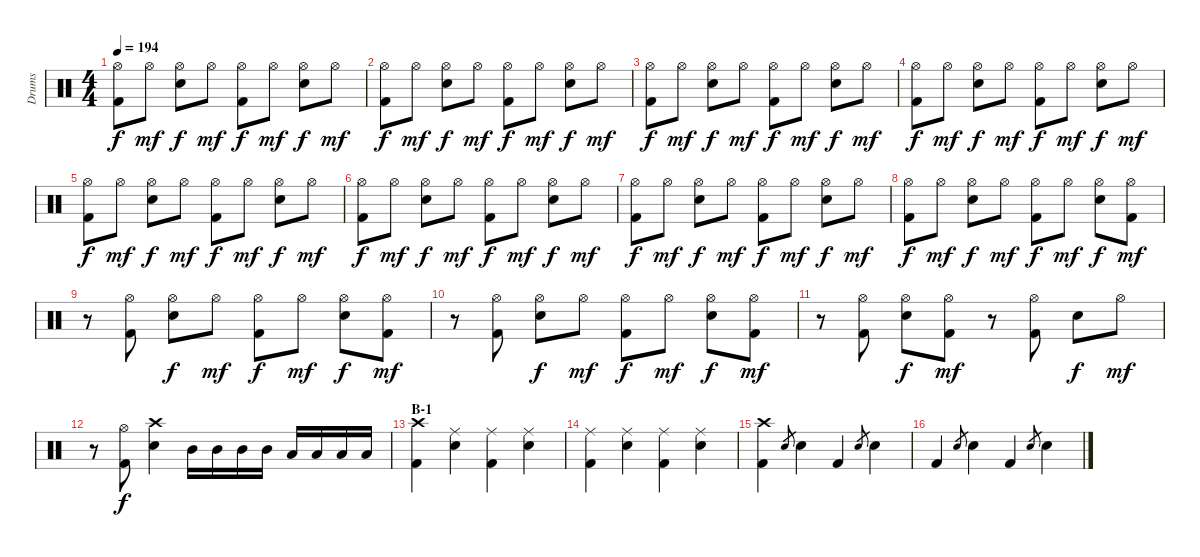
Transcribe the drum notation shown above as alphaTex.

\track ("Drums" "Drums") {instrument percussion}
\staff {score}
\articulation defaults
\ts (4 4)
\tempo 194
\clef neutral
\ks c
("Hi-Hat (open)" "Kick (hit) 2").8{dy f} "Hi-Hat (open)".8{dy mf} ("Hi-Hat (open)" "Electric Snare (hit)").8{dy f} "Hi-Hat (open)".8{dy mf} ("Hi-Hat (open)" "Kick (hit) 2").8{dy f} "Hi-Hat (open)".8{dy mf} ("Hi-Hat (open)" "Electric Snare (hit)").8{dy f} "Hi-Hat (open)".8{dy mf} |
("Hi-Hat (open)" "Kick (hit) 2").8{dy f} "Hi-Hat (open)".8{dy mf} ("Hi-Hat (open)" "Electric Snare (hit)").8{dy f} "Hi-Hat (open)".8{dy mf} ("Hi-Hat (open)" "Kick (hit) 2").8{dy f} "Hi-Hat (open)".8{dy mf} ("Hi-Hat (open)" "Electric Snare (hit)").8{dy f} "Hi-Hat (open)".8{dy mf} |
("Hi-Hat (open)" "Kick (hit) 2").8{dy f} "Hi-Hat (open)".8{dy mf} ("Hi-Hat (open)" "Electric Snare (hit)").8{dy f} "Hi-Hat (open)".8{dy mf} ("Hi-Hat (open)" "Kick (hit) 2").8{dy f} "Hi-Hat (open)".8{dy mf} ("Hi-Hat (open)" "Electric Snare (hit)").8{dy f} "Hi-Hat (open)".8{dy mf} |
("Hi-Hat (open)" "Kick (hit) 2").8{dy f} "Hi-Hat (open)".8{dy mf} ("Hi-Hat (open)" "Electric Snare (hit)").8{dy f} "Hi-Hat (open)".8{dy mf} ("Hi-Hat (open)" "Kick (hit) 2").8{dy f} "Hi-Hat (open)".8{dy mf} ("Hi-Hat (open)" "Electric Snare (hit)").8{dy f} "Hi-Hat (open)".8{dy mf} |
("Hi-Hat (open)" "Kick (hit) 2").8{dy f} "Hi-Hat (open)".8{dy mf} ("Hi-Hat (open)" "Electric Snare (hit)").8{dy f} "Hi-Hat (open)".8{dy mf} ("Hi-Hat (open)" "Kick (hit) 2").8{dy f} "Hi-Hat (open)".8{dy mf} ("Hi-Hat (open)" "Electric Snare (hit)").8{dy f} "Hi-Hat (open)".8{dy mf} |
("Hi-Hat (open)" "Kick (hit) 2").8{dy f} "Hi-Hat (open)".8{dy mf} ("Hi-Hat (open)" "Electric Snare (hit)").8{dy f} "Hi-Hat (open)".8{dy mf} ("Hi-Hat (open)" "Kick (hit) 2").8{dy f} "Hi-Hat (open)".8{dy mf} ("Hi-Hat (open)" "Electric Snare (hit)").8{dy f} "Hi-Hat (open)".8{dy mf} |
("Hi-Hat (open)" "Kick (hit) 2").8{dy f} "Hi-Hat (open)".8{dy mf} ("Hi-Hat (open)" "Electric Snare (hit)").8{dy f} "Hi-Hat (open)".8{dy mf} ("Hi-Hat (open)" "Kick (hit) 2").8{dy f} "Hi-Hat (open)".8{dy mf} ("Hi-Hat (open)" "Electric Snare (hit)").8{dy f} "Hi-Hat (open)".8{dy mf} |
("Hi-Hat (open)" "Kick (hit) 2").8{dy f} "Hi-Hat (open)".8{dy mf} ("Hi-Hat (open)" "Electric Snare (hit)").8{dy f} "Hi-Hat (open)".8{dy mf} ("Hi-Hat (open)" "Kick (hit) 2").8{dy f} "Hi-Hat (open)".8{dy mf} ("Hi-Hat (open)" "Electric Snare (hit)").8{dy f} ("Hi-Hat (open)" "Kick (hit) 2").8{dy mf} |
r.8 ("Hi-Hat (open)" "Kick (hit) 2").8 ("Hi-Hat (open)" "Electric Snare (hit)").8{dy f} "Hi-Hat (open)".8{dy mf} ("Hi-Hat (open)" "Kick (hit) 2").8{dy f} "Hi-Hat (open)".8{dy mf} ("Hi-Hat (open)" "Electric Snare (hit)").8{dy f} ("Hi-Hat (open)" "Kick (hit) 2").8{dy mf} |
r.8 ("Hi-Hat (open)" "Kick (hit) 2").8 ("Hi-Hat (open)" "Electric Snare (hit)").8{dy f} "Hi-Hat (open)".8{dy mf} ("Hi-Hat (open)" "Kick (hit) 2").8{dy f} "Hi-Hat (open)".8{dy mf} ("Hi-Hat (open)" "Electric Snare (hit)").8{dy f} ("Hi-Hat (open)" "Kick (hit) 2").8{dy mf} |
r.8 ("Hi-Hat (open)" "Kick (hit) 2").8 ("Hi-Hat (open)" "Electric Snare (hit)").8{dy f} ("Hi-Hat (open)" "Kick (hit) 2").8{dy mf} r.8 ("Hi-Hat (open)" "Kick (hit) 2").8 "Electric Snare (hit)".8{dy f} "Hi-Hat (open)".8{dy mf} |
r.8 ("Hi-Hat (open)" "Kick (hit) 2").8{dy f} ("Crash high (hit)" "Electric Snare (hit)").4 "Mid Tom (hit)".16 "Mid Tom (hit)".16 "Mid Tom (hit)".16 "Mid Tom (hit)".16 "Low Tom (hit)".16 "Low Tom (hit)".16 "Low Tom (hit)".16 "Low Tom (hit)".16 |
\section ("" "B-1")
("Crash high (hit)" "Kick (hit) 2").4 ("Ride (middle)" "Electric Snare (hit)").4 ("Ride (middle)" "Kick (hit) 2").4 ("Ride (middle)" "Electric Snare (hit)").4 |
("Ride (middle)" "Kick (hit) 2").4 ("Ride (middle)" "Electric Snare (hit)").4 ("Ride (middle)" "Kick (hit) 2").4 ("Ride (middle)" "Electric Snare (hit)").4 |
("Crash high (hit)" "Kick (hit) 2").4 "Electric Snare (hit)".8{gr} "Electric Snare (hit)".4 "Kick (hit) 2".4 "Electric Snare (hit)".8{gr} "Electric Snare (hit)".4 |
"Kick (hit) 2".4 "Electric Snare (hit)".8{gr} "Electric Snare (hit)".4 "Kick (hit) 2".4 "Electric Snare (hit)".8{gr} "Electric Snare (hit)".4
